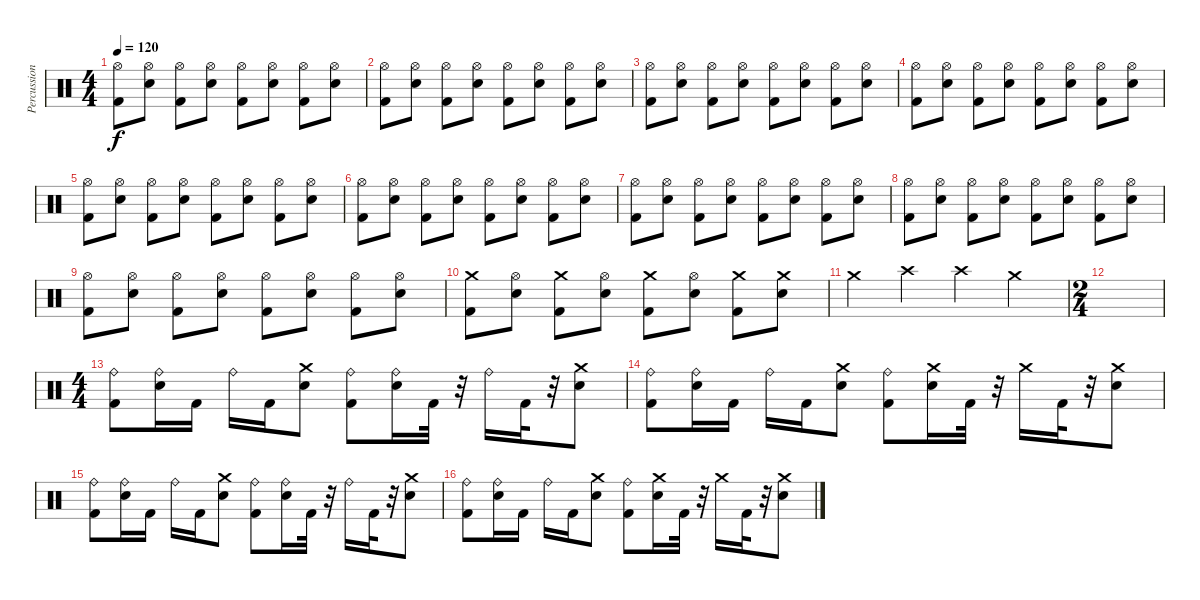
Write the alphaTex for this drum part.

\track ("Percussions" "Percussion") {instrument percussion}
\staff {score}
\articulation defaults
\ts (4 4)
\tempo 120
\clef neutral
\ks c
("Hi-Hat (open)" "Kick (hit) 2").8{dy f} ("Hi-Hat (open)" "Electric Snare (hit)").8 ("Hi-Hat (open)" "Kick (hit) 2").8 ("Hi-Hat (open)" "Electric Snare (hit)").8 ("Hi-Hat (open)" "Kick (hit) 2").8 ("Hi-Hat (open)" "Electric Snare (hit)").8 ("Hi-Hat (open)" "Kick (hit) 2").8 ("Hi-Hat (open)" "Electric Snare (hit)").8 |
("Hi-Hat (open)" "Kick (hit) 2").8 ("Hi-Hat (open)" "Electric Snare (hit)").8 ("Hi-Hat (open)" "Kick (hit) 2").8 ("Hi-Hat (open)" "Electric Snare (hit)").8 ("Hi-Hat (open)" "Kick (hit) 2").8 ("Hi-Hat (open)" "Electric Snare (hit)").8 ("Hi-Hat (open)" "Kick (hit) 2").8 ("Hi-Hat (open)" "Electric Snare (hit)").8 |
("Hi-Hat (open)" "Kick (hit) 2").8 ("Hi-Hat (open)" "Electric Snare (hit)").8 ("Hi-Hat (open)" "Kick (hit) 2").8 ("Hi-Hat (open)" "Electric Snare (hit)").8 ("Hi-Hat (open)" "Kick (hit) 2").8 ("Hi-Hat (open)" "Electric Snare (hit)").8 ("Hi-Hat (open)" "Kick (hit) 2").8 ("Hi-Hat (open)" "Electric Snare (hit)").8 |
("Hi-Hat (open)" "Kick (hit) 2").8 ("Hi-Hat (open)" "Electric Snare (hit)").8 ("Hi-Hat (open)" "Kick (hit) 2").8 ("Hi-Hat (open)" "Electric Snare (hit)").8 ("Hi-Hat (open)" "Kick (hit) 2").8 ("Hi-Hat (open)" "Electric Snare (hit)").8 ("Hi-Hat (open)" "Kick (hit) 2").8 ("Hi-Hat (open)" "Electric Snare (hit)").8 |
("Hi-Hat (open)" "Kick (hit) 2").8 ("Hi-Hat (open)" "Electric Snare (hit)").8 ("Hi-Hat (open)" "Kick (hit) 2").8 ("Hi-Hat (open)" "Electric Snare (hit)").8 ("Hi-Hat (open)" "Kick (hit) 2").8 ("Hi-Hat (open)" "Electric Snare (hit)").8 ("Hi-Hat (open)" "Kick (hit) 2").8 ("Hi-Hat (open)" "Electric Snare (hit)").8 |
("Hi-Hat (open)" "Kick (hit) 2").8 ("Hi-Hat (open)" "Electric Snare (hit)").8 ("Hi-Hat (open)" "Kick (hit) 2").8 ("Hi-Hat (open)" "Electric Snare (hit)").8 ("Hi-Hat (open)" "Kick (hit) 2").8 ("Hi-Hat (open)" "Electric Snare (hit)").8 ("Hi-Hat (open)" "Kick (hit) 2").8 ("Hi-Hat (open)" "Electric Snare (hit)").8 |
("Hi-Hat (open)" "Kick (hit) 2").8 ("Hi-Hat (open)" "Electric Snare (hit)").8 ("Hi-Hat (open)" "Kick (hit) 2").8 ("Hi-Hat (open)" "Electric Snare (hit)").8 ("Hi-Hat (open)" "Kick (hit) 2").8 ("Hi-Hat (open)" "Electric Snare (hit)").8 ("Hi-Hat (open)" "Kick (hit) 2").8 ("Hi-Hat (open)" "Electric Snare (hit)").8 |
("Hi-Hat (open)" "Kick (hit) 2").8 ("Hi-Hat (open)" "Electric Snare (hit)").8 ("Hi-Hat (open)" "Kick (hit) 2").8 ("Hi-Hat (open)" "Electric Snare (hit)").8 ("Hi-Hat (open)" "Kick (hit) 2").8 ("Hi-Hat (open)" "Electric Snare (hit)").8 ("Hi-Hat (open)" "Kick (hit) 2").8 ("Hi-Hat (open)" "Electric Snare (hit)").8 |
("Hi-Hat (open)" "Kick (hit) 2").8 ("Hi-Hat (open)" "Electric Snare (hit)").8 ("Hi-Hat (open)" "Kick (hit) 2").8 ("Hi-Hat (open)" "Electric Snare (hit)").8 ("Hi-Hat (open)" "Kick (hit) 2").8 ("Hi-Hat (open)" "Electric Snare (hit)").8 ("Hi-Hat (open)" "Kick (hit) 2").8 ("Hi-Hat (open)" "Electric Snare (hit)").8 |
("Crash medium (hit)" "Kick (hit) 2").8 ("Hi-Hat (open)" "Electric Snare (hit)").8 ("Crash medium (hit)" "Kick (hit) 2").8 ("Hi-Hat (open)" "Electric Snare (hit)").8 ("Crash medium (hit)" "Kick (hit) 2").8 ("Hi-Hat (open)" "Electric Snare (hit)").8 ("Crash medium (hit)" "Kick (hit) 2").8 ("Crash medium (hit)" "Electric Snare (hit)").8 |
"Crash medium (hit)".4 "Crash high (hit)".4 "Crash high (hit)".4 "Crash medium (hit)".4 |
\ts (2 4)
|
\ts (4 4)
("Ride (bell)" "Kick (hit) 2").8 ("Ride (bell)" "Electric Snare (hit)").16 "Kick (hit) 2".16 "Ride (bell)".16 "Kick (hit) 2".16 ("Crash medium (hit)" "Electric Snare (hit)").8 ("Ride (bell)" "Kick (hit) 2").8 ("Ride (bell)" "Electric Snare (hit)").16 "Kick (hit) 2".32 r.32 "Ride (bell)".16 "Kick (hit) 2".32 r.32 ("Crash medium (hit)" "Electric Snare (hit)").8 |
("Ride (bell)" "Kick (hit) 2").8 ("Ride (bell)" "Electric Snare (hit)").16 "Kick (hit) 2".16 "Ride (bell)".16 "Kick (hit) 2".16 ("Crash medium (hit)" "Electric Snare (hit)").8 ("Ride (bell)" "Kick (hit) 2").8 ("Crash medium (hit)" "Electric Snare (hit)").16 "Kick (hit) 2".32 r.32 "Crash medium (hit)".16 "Kick (hit) 2".32 r.32 ("Crash medium (hit)" "Electric Snare (hit)").8 |
("Ride (bell)" "Kick (hit) 2").8 ("Ride (bell)" "Electric Snare (hit)").16 "Kick (hit) 2".16 "Ride (bell)".16 "Kick (hit) 2".16 ("Crash medium (hit)" "Electric Snare (hit)").8 ("Ride (bell)" "Kick (hit) 2").8 ("Ride (bell)" "Electric Snare (hit)").16 "Kick (hit) 2".32 r.32 "Ride (bell)".16 "Kick (hit) 2".32 r.32 ("Crash medium (hit)" "Electric Snare (hit)").8 |
("Ride (bell)" "Kick (hit) 2").8 ("Ride (bell)" "Electric Snare (hit)").16 "Kick (hit) 2".16 "Ride (bell)".16 "Kick (hit) 2".16 ("Crash medium (hit)" "Electric Snare (hit)").8 ("Ride (bell)" "Kick (hit) 2").8 ("Crash medium (hit)" "Electric Snare (hit)").16 "Kick (hit) 2".32 r.32 "Crash medium (hit)".16 "Kick (hit) 2".32 r.32 ("Crash medium (hit)" "Electric Snare (hit)").8
